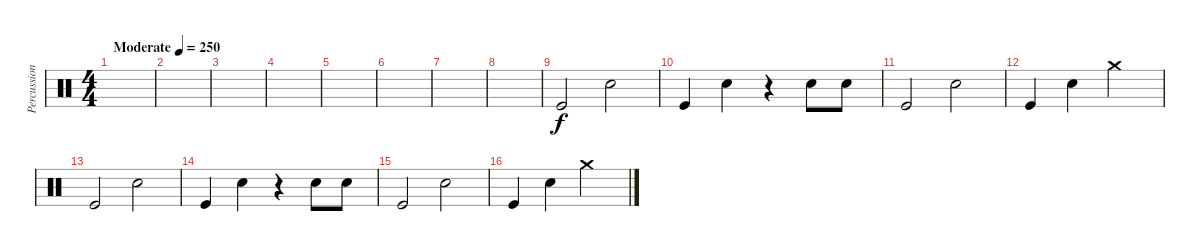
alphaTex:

\track ("Percussion" "Percussion") {instrument percussion}
\staff {score}
\articulation defaults
\ts (4 4)
\tempo (250 "Moderate")
\clef neutral
\ks c
|
|
|
|
|
|
|
|
"Kick (hit)".2 "Electric Snare (hit)".2 |
"Kick (hit)".4 "Electric Snare (hit)".4 r.4 "Electric Snare (hit)".8 "Electric Snare (hit)".8 |
"Kick (hit)".2 "Electric Snare (hit)".2 |
"Kick (hit)".4 "Electric Snare (hit)".4 "Crash medium (hit)".2 |
"Kick (hit)".2 "Electric Snare (hit)".2 |
"Kick (hit)".4 "Electric Snare (hit)".4 r.4 "Electric Snare (hit)".8 "Electric Snare (hit)".8 |
"Kick (hit)".2 "Electric Snare (hit)".2 |
"Kick (hit)".4 "Electric Snare (hit)".4 "Crash medium (hit)".2
